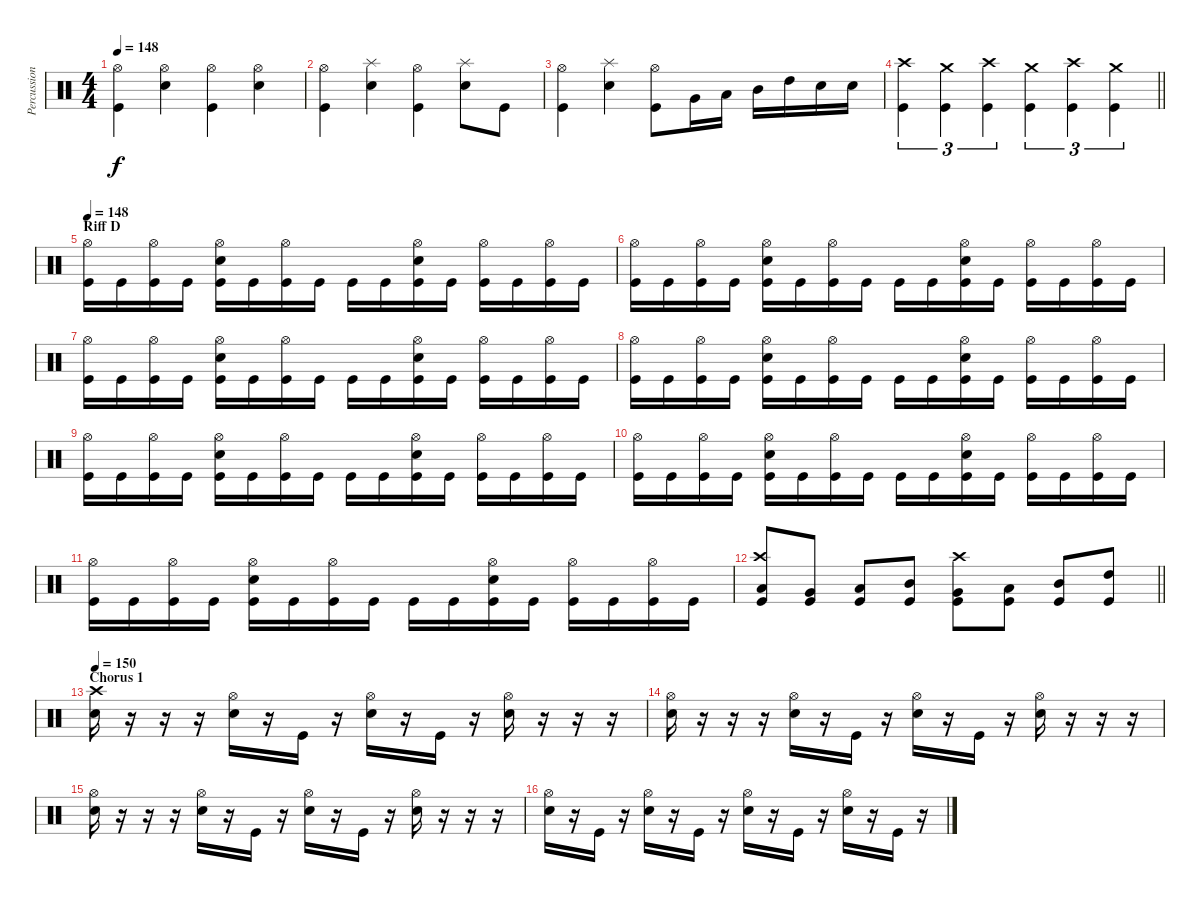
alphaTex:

\track ("Percussion" "Percussion") {instrument percussion}
\staff {score}
\articulation defaults
\ts (4 4)
\tempo 148
\clef neutral
\ks c
("Hi-Hat (open)" "Kick (hit)").4{dy f} ("Hi-Hat (open)" "Snare (hit) 2").4 ("Hi-Hat (open)" "Kick (hit)").4 ("Hi-Hat (open)" "Snare (hit) 2").4 |
("Hi-Hat (open)" "Kick (hit)").4 ("Splash (hit)" "Snare (hit) 2").4 ("Hi-Hat (open)" "Kick (hit)").4 ("Splash (hit)" "Snare (hit) 2").8 "Kick (hit)".8 |
("Hi-Hat (open)" "Kick (hit)").4 ("Splash (hit)" "Snare (hit) 2").4 ("Hi-Hat (open)" "Kick (hit)").8 "Very Low Tom (hit)".16 "Low Tom (hit)".16 "Mid Tom (hit)".16 "High Tom (hit)".16 "Snare (hit) 2".16 "Snare (hit) 2".16 |
\barLineRight lightlight
("Crash high (hit)" "Kick (hit)").4{tu (3 2)} ("Crash medium (hit)" "Kick (hit)").4{tu (3 2)} ("Crash high (hit)" "Kick (hit)").4{tu (3 2)} ("Crash medium (hit)" "Kick (hit)").4{tu (3 2)} ("Crash high (hit)" "Kick (hit)").4{tu (3 2)} ("Crash medium (hit)" "Kick (hit)").4{tu (3 2)} |
\section ("" "Riff D")
\tempo 148
("Hi-Hat (open)" "Kick (hit)").16 "Kick (hit)".16 ("Hi-Hat (open)" "Kick (hit)").16 "Kick (hit)".16 ("Hi-Hat (open)" "Snare (hit) 2" "Kick (hit)").16 "Kick (hit)".16 ("Hi-Hat (open)" "Kick (hit)").16 "Kick (hit)".16 "Kick (hit)".16 "Kick (hit)".16 ("Hi-Hat (open)" "Snare (hit) 2" "Kick (hit)").16 "Kick (hit)".16 ("Hi-Hat (open)" "Kick (hit)").16 "Kick (hit)".16 ("Hi-Hat (open)" "Kick (hit)").16 "Kick (hit)".16 |
("Hi-Hat (open)" "Kick (hit)").16 "Kick (hit)".16 ("Hi-Hat (open)" "Kick (hit)").16 "Kick (hit)".16 ("Hi-Hat (open)" "Snare (hit) 2" "Kick (hit)").16 "Kick (hit)".16 ("Hi-Hat (open)" "Kick (hit)").16 "Kick (hit)".16 "Kick (hit)".16 "Kick (hit)".16 ("Hi-Hat (open)" "Snare (hit) 2" "Kick (hit)").16 "Kick (hit)".16 ("Hi-Hat (open)" "Kick (hit)").16 "Kick (hit)".16 ("Hi-Hat (open)" "Kick (hit)").16 "Kick (hit)".16 |
("Hi-Hat (open)" "Kick (hit)").16 "Kick (hit)".16 ("Hi-Hat (open)" "Kick (hit)").16 "Kick (hit)".16 ("Hi-Hat (open)" "Snare (hit) 2" "Kick (hit)").16 "Kick (hit)".16 ("Hi-Hat (open)" "Kick (hit)").16 "Kick (hit)".16 "Kick (hit)".16 "Kick (hit)".16 ("Hi-Hat (open)" "Snare (hit) 2" "Kick (hit)").16 "Kick (hit)".16 ("Hi-Hat (open)" "Kick (hit)").16 "Kick (hit)".16 ("Hi-Hat (open)" "Kick (hit)").16 "Kick (hit)".16 |
("Hi-Hat (open)" "Kick (hit)").16 "Kick (hit)".16 ("Hi-Hat (open)" "Kick (hit)").16 "Kick (hit)".16 ("Hi-Hat (open)" "Snare (hit) 2" "Kick (hit)").16 "Kick (hit)".16 ("Hi-Hat (open)" "Kick (hit)").16 "Kick (hit)".16 "Kick (hit)".16 "Kick (hit)".16 ("Hi-Hat (open)" "Snare (hit) 2" "Kick (hit)").16 "Kick (hit)".16 ("Hi-Hat (open)" "Kick (hit)").16 "Kick (hit)".16 ("Hi-Hat (open)" "Kick (hit)").16 "Kick (hit)".16 |
("Hi-Hat (open)" "Kick (hit)").16 "Kick (hit)".16 ("Hi-Hat (open)" "Kick (hit)").16 "Kick (hit)".16 ("Hi-Hat (open)" "Snare (hit) 2" "Kick (hit)").16 "Kick (hit)".16 ("Hi-Hat (open)" "Kick (hit)").16 "Kick (hit)".16 "Kick (hit)".16 "Kick (hit)".16 ("Hi-Hat (open)" "Snare (hit) 2" "Kick (hit)").16 "Kick (hit)".16 ("Hi-Hat (open)" "Kick (hit)").16 "Kick (hit)".16 ("Hi-Hat (open)" "Kick (hit)").16 "Kick (hit)".16 |
("Hi-Hat (open)" "Kick (hit)").16 "Kick (hit)".16 ("Hi-Hat (open)" "Kick (hit)").16 "Kick (hit)".16 ("Hi-Hat (open)" "Snare (hit) 2" "Kick (hit)").16 "Kick (hit)".16 ("Hi-Hat (open)" "Kick (hit)").16 "Kick (hit)".16 "Kick (hit)".16 "Kick (hit)".16 ("Hi-Hat (open)" "Snare (hit) 2" "Kick (hit)").16 "Kick (hit)".16 ("Hi-Hat (open)" "Kick (hit)").16 "Kick (hit)".16 ("Hi-Hat (open)" "Kick (hit)").16 "Kick (hit)".16 |
("Hi-Hat (open)" "Kick (hit)").16 "Kick (hit)".16 ("Hi-Hat (open)" "Kick (hit)").16 "Kick (hit)".16 ("Hi-Hat (open)" "Snare (hit) 2" "Kick (hit)").16 "Kick (hit)".16 ("Hi-Hat (open)" "Kick (hit)").16 "Kick (hit)".16 "Kick (hit)".16 "Kick (hit)".16 ("Hi-Hat (open)" "Snare (hit) 2" "Kick (hit)").16 "Kick (hit)".16 ("Hi-Hat (open)" "Kick (hit)").16 "Kick (hit)".16 ("Hi-Hat (open)" "Kick (hit)").16 "Kick (hit)".16 |
\barLineRight lightlight
("Crash high (hit)" "Low Floor Tom (hit)" "Kick (hit)").8 ("Very Low Tom (hit)" "Kick (hit)").8 ("Low Tom (hit)" "Kick (hit)").8 ("Mid Tom (hit)" "Kick (hit)").8 ("Crash high (hit)" "Very Low Tom (hit)" "Kick (hit)").8 ("Low Tom (hit)" "Kick (hit)").8 ("Mid Tom (hit)" "Kick (hit)").8 ("High Tom (hit)" "Kick (hit)").8 |
\section ("" "Chorus 1")
\tempo 150
("Crash high (hit)" "Snare (hit) 2").16 r.16 r.16 r.16 ("Hi-Hat (open)" "Snare (hit) 2").16 r.16 "Kick (hit)".16 r.16 ("Hi-Hat (open)" "Snare (hit) 2").16 r.16 "Kick (hit)".16 r.16 ("Hi-Hat (open)" "Snare (hit) 2").16 r.16 r.16 r.16 |
("Hi-Hat (open)" "Snare (hit) 2").16 r.16 r.16 r.16 ("Hi-Hat (open)" "Snare (hit) 2").16 r.16 "Kick (hit)".16 r.16 ("Hi-Hat (open)" "Snare (hit) 2").16 r.16 "Kick (hit)".16 r.16 ("Hi-Hat (open)" "Snare (hit) 2").16 r.16 r.16 r.16 |
("Hi-Hat (open)" "Snare (hit) 2").16 r.16 r.16 r.16 ("Hi-Hat (open)" "Snare (hit) 2").16 r.16 "Kick (hit)".16 r.16 ("Hi-Hat (open)" "Snare (hit) 2").16 r.16 "Kick (hit)".16 r.16 ("Hi-Hat (open)" "Snare (hit) 2").16 r.16 r.16 r.16 |
("Hi-Hat (open)" "Snare (hit) 2").16 r.16 "Kick (hit)".16 r.16 ("Hi-Hat (open)" "Snare (hit) 2").16 r.16 "Kick (hit)".16 r.16 ("Hi-Hat (open)" "Snare (hit) 2").16 r.16 "Kick (hit)".16 r.16 ("Hi-Hat (open)" "Snare (hit) 2").16 r.16 "Kick (hit)".16 r.16
